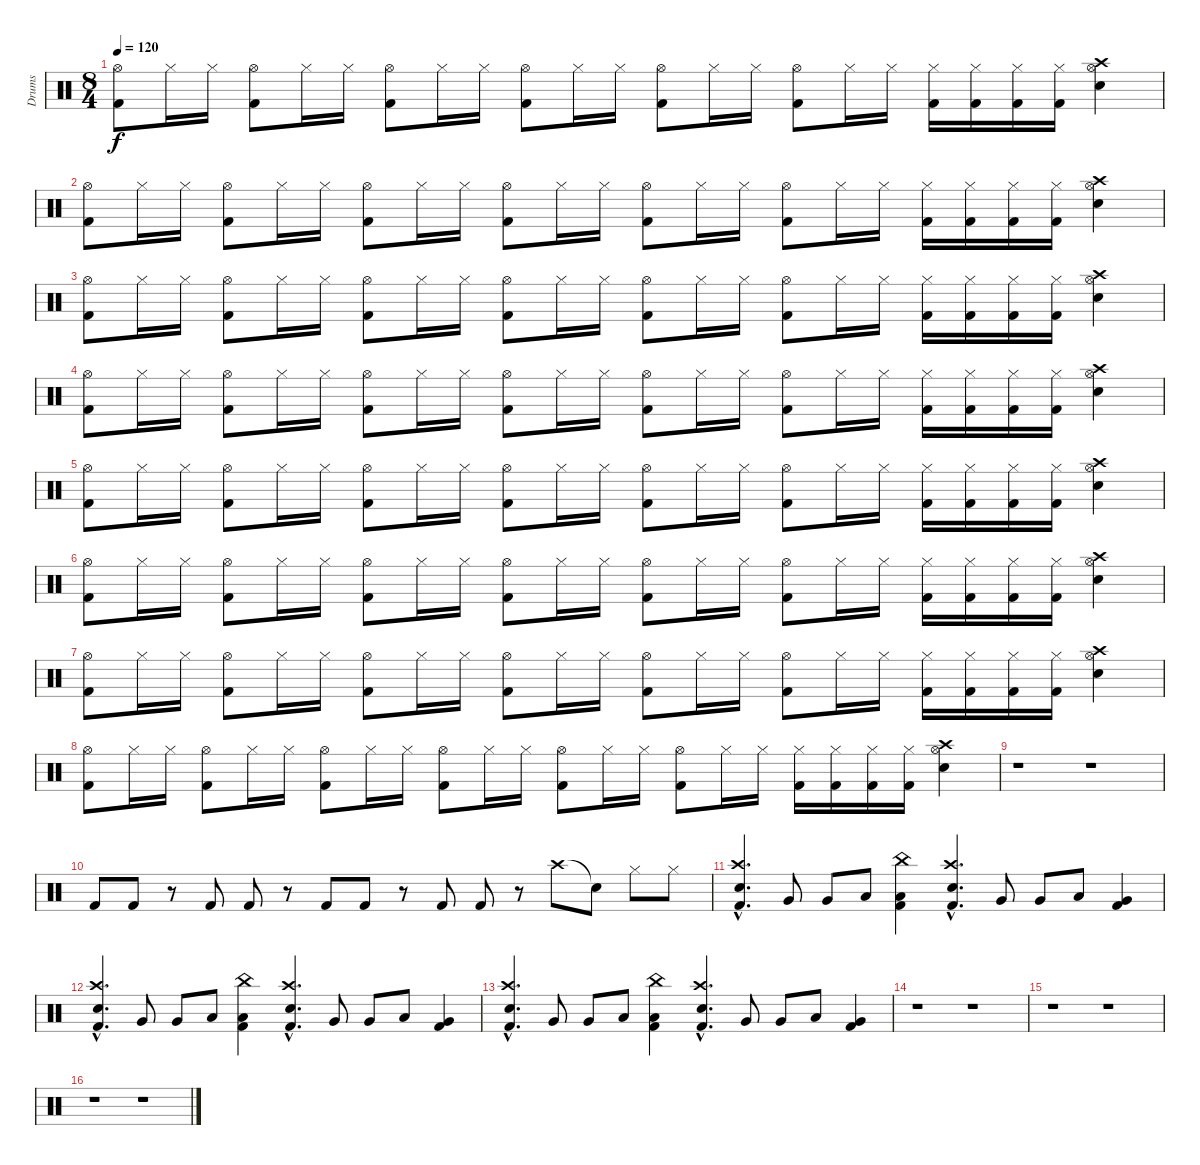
\track ("Drums" "Drums") {instrument percussion}
\staff {score}
\articulation defaults
\ts (8 4)
\tempo 120
\clef neutral
\ks c
("Hi-Hat (open)" "Kick (hit) 2").8{dy f} "Hi-Hat (closed)".16 "Hi-Hat (closed)".16 ("Hi-Hat (open)" "Kick (hit) 2").8 "Hi-Hat (closed)".16 "Hi-Hat (closed)".16 ("Hi-Hat (open)" "Kick (hit) 2").8 "Hi-Hat (closed)".16 "Hi-Hat (closed)".16 ("Hi-Hat (open)" "Kick (hit) 2").8 "Hi-Hat (closed)".16 "Hi-Hat (closed)".16 ("Hi-Hat (open)" "Kick (hit) 2").8 "Hi-Hat (closed)".16 "Hi-Hat (closed)".16 ("Hi-Hat (open)" "Kick (hit) 2").8 "Hi-Hat (closed)".16 "Hi-Hat (closed)".16 ("Hi-Hat (closed)" "Kick (hit) 2").16 ("Hi-Hat (closed)" "Kick (hit) 2").16 ("Hi-Hat (closed)" "Kick (hit) 2").16 ("Hi-Hat (closed)" "Kick (hit) 2").16 ("Crash high (hit)" "Hi-Hat (open)" "Snare (hit) 2").4 |
("Hi-Hat (open)" "Kick (hit) 2").8 "Hi-Hat (closed)".16 "Hi-Hat (closed)".16 ("Hi-Hat (open)" "Kick (hit) 2").8 "Hi-Hat (closed)".16 "Hi-Hat (closed)".16 ("Hi-Hat (open)" "Kick (hit) 2").8 "Hi-Hat (closed)".16 "Hi-Hat (closed)".16 ("Hi-Hat (open)" "Kick (hit) 2").8 "Hi-Hat (closed)".16 "Hi-Hat (closed)".16 ("Hi-Hat (open)" "Kick (hit) 2").8 "Hi-Hat (closed)".16 "Hi-Hat (closed)".16 ("Hi-Hat (open)" "Kick (hit) 2").8 "Hi-Hat (closed)".16 "Hi-Hat (closed)".16 ("Hi-Hat (closed)" "Kick (hit) 2").16 ("Hi-Hat (closed)" "Kick (hit) 2").16 ("Hi-Hat (closed)" "Kick (hit) 2").16 ("Hi-Hat (closed)" "Kick (hit) 2").16 ("Crash high (hit)" "Hi-Hat (open)" "Snare (hit) 2").4 |
("Hi-Hat (open)" "Kick (hit) 2").8 "Hi-Hat (closed)".16 "Hi-Hat (closed)".16 ("Hi-Hat (open)" "Kick (hit) 2").8 "Hi-Hat (closed)".16 "Hi-Hat (closed)".16 ("Hi-Hat (open)" "Kick (hit) 2").8 "Hi-Hat (closed)".16 "Hi-Hat (closed)".16 ("Hi-Hat (open)" "Kick (hit) 2").8 "Hi-Hat (closed)".16 "Hi-Hat (closed)".16 ("Hi-Hat (open)" "Kick (hit) 2").8 "Hi-Hat (closed)".16 "Hi-Hat (closed)".16 ("Hi-Hat (open)" "Kick (hit) 2").8 "Hi-Hat (closed)".16 "Hi-Hat (closed)".16 ("Hi-Hat (closed)" "Kick (hit) 2").16 ("Hi-Hat (closed)" "Kick (hit) 2").16 ("Hi-Hat (closed)" "Kick (hit) 2").16 ("Hi-Hat (closed)" "Kick (hit) 2").16 ("Crash high (hit)" "Hi-Hat (open)" "Snare (hit) 2").4 |
("Hi-Hat (open)" "Kick (hit) 2").8 "Hi-Hat (closed)".16 "Hi-Hat (closed)".16 ("Hi-Hat (open)" "Kick (hit) 2").8 "Hi-Hat (closed)".16 "Hi-Hat (closed)".16 ("Hi-Hat (open)" "Kick (hit) 2").8 "Hi-Hat (closed)".16 "Hi-Hat (closed)".16 ("Hi-Hat (open)" "Kick (hit) 2").8 "Hi-Hat (closed)".16 "Hi-Hat (closed)".16 ("Hi-Hat (open)" "Kick (hit) 2").8 "Hi-Hat (closed)".16 "Hi-Hat (closed)".16 ("Hi-Hat (open)" "Kick (hit) 2").8 "Hi-Hat (closed)".16 "Hi-Hat (closed)".16 ("Hi-Hat (closed)" "Kick (hit) 2").16 ("Hi-Hat (closed)" "Kick (hit) 2").16 ("Hi-Hat (closed)" "Kick (hit) 2").16 ("Hi-Hat (closed)" "Kick (hit) 2").16 ("Crash high (hit)" "Hi-Hat (open)" "Snare (hit) 2").4 |
("Hi-Hat (open)" "Kick (hit) 2").8 "Hi-Hat (closed)".16 "Hi-Hat (closed)".16 ("Hi-Hat (open)" "Kick (hit) 2").8 "Hi-Hat (closed)".16 "Hi-Hat (closed)".16 ("Hi-Hat (open)" "Kick (hit) 2").8 "Hi-Hat (closed)".16 "Hi-Hat (closed)".16 ("Hi-Hat (open)" "Kick (hit) 2").8 "Hi-Hat (closed)".16 "Hi-Hat (closed)".16 ("Hi-Hat (open)" "Kick (hit) 2").8 "Hi-Hat (closed)".16 "Hi-Hat (closed)".16 ("Hi-Hat (open)" "Kick (hit) 2").8 "Hi-Hat (closed)".16 "Hi-Hat (closed)".16 ("Hi-Hat (closed)" "Kick (hit) 2").16 ("Hi-Hat (closed)" "Kick (hit) 2").16 ("Hi-Hat (closed)" "Kick (hit) 2").16 ("Hi-Hat (closed)" "Kick (hit) 2").16 ("Crash high (hit)" "Hi-Hat (open)" "Snare (hit) 2").4 |
("Hi-Hat (open)" "Kick (hit) 2").8 "Hi-Hat (closed)".16 "Hi-Hat (closed)".16 ("Hi-Hat (open)" "Kick (hit) 2").8 "Hi-Hat (closed)".16 "Hi-Hat (closed)".16 ("Hi-Hat (open)" "Kick (hit) 2").8 "Hi-Hat (closed)".16 "Hi-Hat (closed)".16 ("Hi-Hat (open)" "Kick (hit) 2").8 "Hi-Hat (closed)".16 "Hi-Hat (closed)".16 ("Hi-Hat (open)" "Kick (hit) 2").8 "Hi-Hat (closed)".16 "Hi-Hat (closed)".16 ("Hi-Hat (open)" "Kick (hit) 2").8 "Hi-Hat (closed)".16 "Hi-Hat (closed)".16 ("Hi-Hat (closed)" "Kick (hit) 2").16 ("Hi-Hat (closed)" "Kick (hit) 2").16 ("Hi-Hat (closed)" "Kick (hit) 2").16 ("Hi-Hat (closed)" "Kick (hit) 2").16 ("Crash high (hit)" "Hi-Hat (open)" "Snare (hit) 2").4 |
("Hi-Hat (open)" "Kick (hit) 2").8 "Hi-Hat (closed)".16 "Hi-Hat (closed)".16 ("Hi-Hat (open)" "Kick (hit) 2").8 "Hi-Hat (closed)".16 "Hi-Hat (closed)".16 ("Hi-Hat (open)" "Kick (hit) 2").8 "Hi-Hat (closed)".16 "Hi-Hat (closed)".16 ("Hi-Hat (open)" "Kick (hit) 2").8 "Hi-Hat (closed)".16 "Hi-Hat (closed)".16 ("Hi-Hat (open)" "Kick (hit) 2").8 "Hi-Hat (closed)".16 "Hi-Hat (closed)".16 ("Hi-Hat (open)" "Kick (hit) 2").8 "Hi-Hat (closed)".16 "Hi-Hat (closed)".16 ("Hi-Hat (closed)" "Kick (hit) 2").16 ("Hi-Hat (closed)" "Kick (hit) 2").16 ("Hi-Hat (closed)" "Kick (hit) 2").16 ("Hi-Hat (closed)" "Kick (hit) 2").16 ("Crash high (hit)" "Hi-Hat (open)" "Snare (hit) 2").4 |
("Hi-Hat (open)" "Kick (hit) 2").8 "Hi-Hat (closed)".16 "Hi-Hat (closed)".16 ("Hi-Hat (open)" "Kick (hit) 2").8 "Hi-Hat (closed)".16 "Hi-Hat (closed)".16 ("Hi-Hat (open)" "Kick (hit) 2").8 "Hi-Hat (closed)".16 "Hi-Hat (closed)".16 ("Hi-Hat (open)" "Kick (hit) 2").8 "Hi-Hat (closed)".16 "Hi-Hat (closed)".16 ("Hi-Hat (open)" "Kick (hit) 2").8 "Hi-Hat (closed)".16 "Hi-Hat (closed)".16 ("Hi-Hat (open)" "Kick (hit) 2").8 "Hi-Hat (closed)".16 "Hi-Hat (closed)".16 ("Hi-Hat (closed)" "Kick (hit) 2").16 ("Hi-Hat (closed)" "Kick (hit) 2").16 ("Hi-Hat (closed)" "Kick (hit) 2").16 ("Hi-Hat (closed)" "Kick (hit) 2").16 ("Crash high (hit)" "Hi-Hat (open)" "Snare (hit) 2").4 |
r.1 r.1 |
"Kick (hit) 2".8 "Kick (hit) 2".8 r.8 "Kick (hit) 2".8 "Kick (hit) 2".8 r.8 "Kick (hit) 2".8 "Kick (hit) 2".8 r.8 "Kick (hit) 2".8 "Kick (hit) 2".8 r.8 "Crash high (hit)".8 "Snare (hit)"{t}.8 "Hi-Hat (closed)".8 "Hi-Hat (closed)".8 |
("Crash high (hit)"{hac} "Snare (hit) 2"{hac} "Kick (hit) 2"{hac}).4{d} "Very Low Tom (hit)".8 "Very Low Tom (hit)".8 "Low Floor Tom (hit)".8 ("China (hit)" "Low Floor Tom (hit)" "Kick (hit) 2").4 ("Crash high (hit)"{hac} "Snare (hit) 2"{hac} "Kick (hit) 2"{hac}).4{d} "Very Low Tom (hit)".8 "Very Low Tom (hit)".8 "Low Floor Tom (hit)".8 ("Very Low Tom (hit)" "Kick (hit) 2").4 |
("Crash high (hit)"{hac} "Snare (hit) 2"{hac} "Kick (hit) 2"{hac}).4{d} "Very Low Tom (hit)".8 "Very Low Tom (hit)".8 "Low Floor Tom (hit)".8 ("China (hit)" "Low Floor Tom (hit)" "Kick (hit) 2").4 ("Crash high (hit)"{hac} "Snare (hit) 2"{hac} "Kick (hit) 2"{hac}).4{d} "Very Low Tom (hit)".8 "Very Low Tom (hit)".8 "Low Floor Tom (hit)".8 ("Very Low Tom (hit)" "Kick (hit) 2").4 |
("Crash high (hit)"{hac} "Snare (hit) 2"{hac} "Kick (hit) 2"{hac}).4{d} "Very Low Tom (hit)".8 "Very Low Tom (hit)".8 "Low Floor Tom (hit)".8 ("China (hit)" "Low Floor Tom (hit)" "Kick (hit) 2").4 ("Crash high (hit)"{hac} "Snare (hit) 2"{hac} "Kick (hit) 2"{hac}).4{d} "Very Low Tom (hit)".8 "Very Low Tom (hit)".8 "Low Floor Tom (hit)".8 ("Very Low Tom (hit)" "Kick (hit) 2").4 |
r.1 r.1 |
r.1 r.1 |
r.1 r.1
